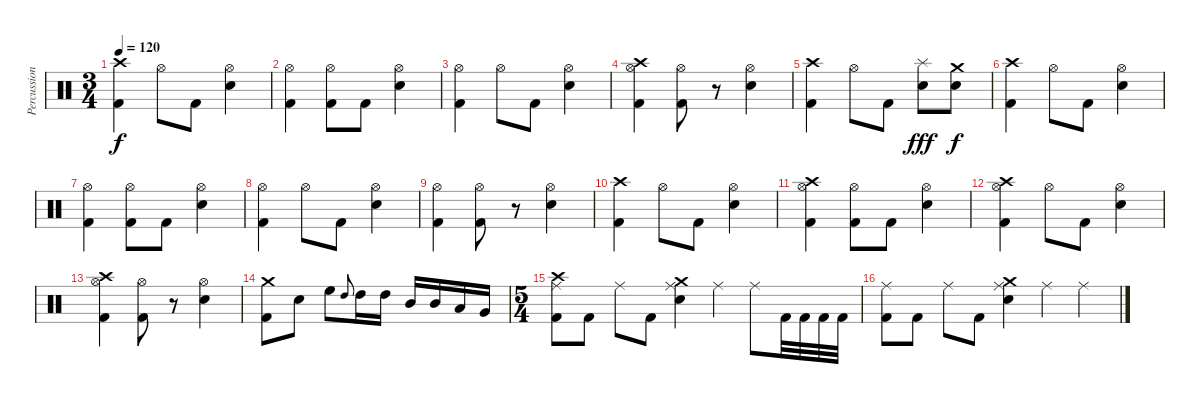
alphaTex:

\track ("Percussion" "Percussion") {instrument percussion}
\staff {score}
\articulation defaults
\ts (3 4)
\tempo 120
\clef neutral
\ks c
("Crash high (hit)" "Kick (hit) 2").4{dy f} "Hi-Hat (open)".8 "Kick (hit) 2".8 ("Hi-Hat (open)" "Electric Snare (hit)").4 |
("Hi-Hat (open)" "Kick (hit) 2").4 ("Hi-Hat (open)" "Kick (hit) 2").8 "Kick (hit) 2".8 ("Hi-Hat (open)" "Electric Snare (hit)").4 |
("Hi-Hat (open)" "Kick (hit) 2").4 "Hi-Hat (open)".8 "Kick (hit) 2".8 ("Hi-Hat (open)" "Electric Snare (hit)").4 |
("Crash high (hit)" "Hi-Hat (open)" "Kick (hit) 2").4 ("Hi-Hat (open)" "Kick (hit) 2").8 r.8 ("Hi-Hat (open)" "Electric Snare (hit)").4 |
("Crash high (hit)" "Kick (hit) 2").4 "Hi-Hat (open)".8 "Kick (hit) 2".8 ("Splash (hit)" "Electric Snare (hit)").8{dy fff} ("Crash medium (hit)" "Electric Snare (hit)").8{dy f} |
("Crash high (hit)" "Kick (hit) 2").4 "Hi-Hat (open)".8 "Kick (hit) 2".8 ("Hi-Hat (open)" "Electric Snare (hit)").4 |
("Hi-Hat (open)" "Kick (hit) 2").4 ("Hi-Hat (open)" "Kick (hit) 2").8 "Kick (hit) 2".8 ("Hi-Hat (open)" "Electric Snare (hit)").4 |
("Hi-Hat (open)" "Kick (hit) 2").4 "Hi-Hat (open)".8 "Kick (hit) 2".8 ("Hi-Hat (open)" "Electric Snare (hit)").4 |
("Hi-Hat (open)" "Kick (hit) 2").4 ("Hi-Hat (open)" "Kick (hit) 2").8 r.8 ("Hi-Hat (open)" "Electric Snare (hit)").4 |
("Crash high (hit)" "Kick (hit) 2").4 "Hi-Hat (open)".8 "Kick (hit) 2".8 ("Hi-Hat (open)" "Electric Snare (hit)").4 |
("Crash high (hit)" "Hi-Hat (open)" "Kick (hit) 2").4 ("Hi-Hat (open)" "Kick (hit) 2").8 "Kick (hit) 2".8 ("Hi-Hat (open)" "Electric Snare (hit)").4 |
("Crash high (hit)" "Hi-Hat (open)" "Kick (hit) 2").4 "Hi-Hat (open)".8 "Kick (hit) 2".8 ("Hi-Hat (open)" "Electric Snare (hit)").4 |
("Crash high (hit)" "Hi-Hat (open)" "Kick (hit) 2").4 ("Hi-Hat (open)" "Kick (hit) 2").8 r.8 ("Hi-Hat (open)" "Electric Snare (hit)").4 |
("Crash medium (hit)" "Kick (hit) 2").8 "Electric Snare (hit)".8 "High Floor Tom (hit)".8 "High Tom (hit)".8{gr onbeat} "High Tom (hit)".16 "High Tom (hit)".16 "Mid Tom (hit)".16 "Mid Tom (hit)".16 "Low Tom (hit)".16 "Very Low Tom (hit)".16 |
\ts (5 4)
("Crash high (hit)" "Ride (middle)" "Kick (hit) 2").8 "Kick (hit) 2".8 "Ride (middle)".8 "Kick (hit) 2".8 ("Crash medium (hit)" "Ride (middle)" "Electric Snare (hit)").4 "Ride (middle)".4 "Ride (middle)".8 "Kick (hit) 2".32 "Kick (hit) 2".32 "Kick (hit) 2".32 "Kick (hit) 2".32 |
("Ride (middle)" "Kick (hit) 2").8 "Kick (hit) 2".8 "Ride (middle)".8 "Kick (hit) 2".8 ("Crash medium (hit)" "Ride (middle)" "Electric Snare (hit)").4 "Ride (middle)".4 "Ride (middle)".4
